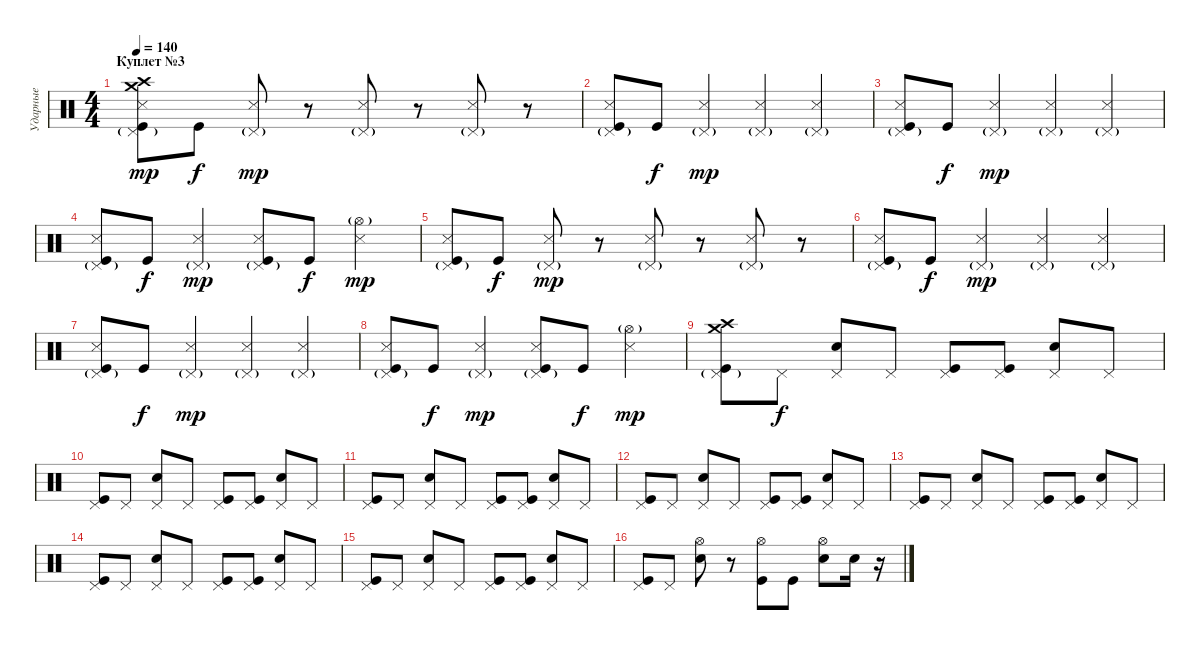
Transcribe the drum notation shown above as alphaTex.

\track ("Ударные" "Ударные") {instrument percussion}
\staff {score}
\articulation defaults
\ts (4 4)
\section ("" "Куплет №3")
\tempo 140
\clef neutral
\ks c
("Crash high (hit)" "Crash medium (hit)" "Pedal Hi-Hat (hit)"{g} "Snare (side stick) 3" "Kick (hit)").8{dy mp} "Kick (hit)".8{dy f} ("Pedal Hi-Hat (hit)"{g} "Snare (side stick) 3").8{dy mp} r.8 ("Pedal Hi-Hat (hit)"{g} "Snare (side stick) 3").8 r.8 ("Pedal Hi-Hat (hit)"{g} "Snare (side stick) 3").8 r.8 |
("Pedal Hi-Hat (hit)"{g} "Kick (hit)" "Snare (side stick) 3").8 "Kick (hit)".8{dy f} ("Pedal Hi-Hat (hit)"{g} "Snare (side stick) 3").4{dy mp} ("Pedal Hi-Hat (hit)"{g} "Snare (side stick) 3").4 ("Pedal Hi-Hat (hit)"{g} "Snare (side stick) 3").4 |
("Pedal Hi-Hat (hit)"{g} "Snare (side stick) 3" "Kick (hit)").8 "Kick (hit)".8{dy f} ("Pedal Hi-Hat (hit)"{g} "Snare (side stick) 3").4{dy mp} ("Pedal Hi-Hat (hit)"{g} "Snare (side stick) 3").4 ("Pedal Hi-Hat (hit)"{g} "Snare (side stick) 3").4 |
("Pedal Hi-Hat (hit)"{g} "Kick (hit)" "Snare (side stick) 3").8 "Kick (hit)".8{dy f} ("Pedal Hi-Hat (hit)"{g} "Snare (side stick) 3").4{dy mp} ("Pedal Hi-Hat (hit)"{g} "Kick (hit)" "Snare (side stick) 3").8 "Kick (hit)".8{dy f} ("Hi-Hat (open)"{g} "Snare (side stick) 3").4{dy mp} |
("Pedal Hi-Hat (hit)"{g} "Snare (side stick) 3" "Kick (hit)").8 "Kick (hit)".8{dy f} ("Pedal Hi-Hat (hit)"{g} "Snare (side stick) 3").8{dy mp} r.8 ("Pedal Hi-Hat (hit)"{g} "Snare (side stick) 3").8 r.8 ("Pedal Hi-Hat (hit)"{g} "Snare (side stick) 3").8 r.8 |
("Pedal Hi-Hat (hit)"{g} "Kick (hit)" "Snare (side stick) 3").8 "Kick (hit)".8{dy f} ("Pedal Hi-Hat (hit)"{g} "Snare (side stick) 3").4{dy mp} ("Pedal Hi-Hat (hit)"{g} "Snare (side stick) 3").4 ("Pedal Hi-Hat (hit)"{g} "Snare (side stick) 3").4 |
("Pedal Hi-Hat (hit)"{g} "Snare (side stick) 3" "Kick (hit)").8 "Kick (hit)".8{dy f} ("Pedal Hi-Hat (hit)"{g} "Snare (side stick) 3").4{dy mp} ("Pedal Hi-Hat (hit)"{g} "Snare (side stick) 3").4 ("Pedal Hi-Hat (hit)"{g} "Snare (side stick) 3").4 |
("Pedal Hi-Hat (hit)"{g} "Kick (hit)" "Snare (side stick) 3").8 "Kick (hit)".8{dy f} ("Pedal Hi-Hat (hit)"{g} "Snare (side stick) 3").4{dy mp} ("Pedal Hi-Hat (hit)"{g} "Kick (hit)" "Snare (side stick) 3").8 "Kick (hit)".8{dy f} ("Hi-Hat (open)"{g} "Snare (side stick) 3").4{dy mp} |
("Crash high (hit)" "Crash medium (hit)" "Pedal Hi-Hat (hit)"{g} "Kick (hit)").8 "Pedal Hi-Hat (hit)".8{dy f} ("Pedal Hi-Hat (hit)" "Electric Snare (hit)").8 "Pedal Hi-Hat (hit)".8 ("Pedal Hi-Hat (hit)" "Kick (hit)").8 ("Pedal Hi-Hat (hit)" "Kick (hit)").8 ("Pedal Hi-Hat (hit)" "Electric Snare (hit)").8 "Pedal Hi-Hat (hit)".8 |
("Pedal Hi-Hat (hit)" "Kick (hit)").8 "Pedal Hi-Hat (hit)".8 ("Pedal Hi-Hat (hit)" "Electric Snare (hit)").8 "Pedal Hi-Hat (hit)".8 ("Pedal Hi-Hat (hit)" "Kick (hit)").8 ("Pedal Hi-Hat (hit)" "Kick (hit)").8 ("Pedal Hi-Hat (hit)" "Electric Snare (hit)").8 "Pedal Hi-Hat (hit)".8 |
("Pedal Hi-Hat (hit)" "Kick (hit)").8 "Pedal Hi-Hat (hit)".8 ("Pedal Hi-Hat (hit)" "Electric Snare (hit)").8 "Pedal Hi-Hat (hit)".8 ("Pedal Hi-Hat (hit)" "Kick (hit)").8 ("Pedal Hi-Hat (hit)" "Kick (hit)").8 ("Pedal Hi-Hat (hit)" "Electric Snare (hit)").8 "Pedal Hi-Hat (hit)".8 |
("Pedal Hi-Hat (hit)" "Kick (hit)").8 "Pedal Hi-Hat (hit)".8 ("Pedal Hi-Hat (hit)" "Electric Snare (hit)").8 "Pedal Hi-Hat (hit)".8 ("Pedal Hi-Hat (hit)" "Kick (hit)").8 ("Pedal Hi-Hat (hit)" "Kick (hit)").8 ("Pedal Hi-Hat (hit)" "Electric Snare (hit)").8 "Pedal Hi-Hat (hit)".8 |
("Pedal Hi-Hat (hit)" "Kick (hit)").8 "Pedal Hi-Hat (hit)".8 ("Pedal Hi-Hat (hit)" "Electric Snare (hit)").8 "Pedal Hi-Hat (hit)".8 ("Pedal Hi-Hat (hit)" "Kick (hit)").8 ("Pedal Hi-Hat (hit)" "Kick (hit)").8 ("Pedal Hi-Hat (hit)" "Electric Snare (hit)").8 "Pedal Hi-Hat (hit)".8 |
("Pedal Hi-Hat (hit)" "Kick (hit)").8 "Pedal Hi-Hat (hit)".8 ("Pedal Hi-Hat (hit)" "Electric Snare (hit)").8 "Pedal Hi-Hat (hit)".8 ("Pedal Hi-Hat (hit)" "Kick (hit)").8 ("Pedal Hi-Hat (hit)" "Kick (hit)").8 ("Pedal Hi-Hat (hit)" "Electric Snare (hit)").8 "Pedal Hi-Hat (hit)".8 |
("Pedal Hi-Hat (hit)" "Kick (hit)").8 "Pedal Hi-Hat (hit)".8 ("Pedal Hi-Hat (hit)" "Electric Snare (hit)").8 "Pedal Hi-Hat (hit)".8 ("Pedal Hi-Hat (hit)" "Kick (hit)").8 ("Pedal Hi-Hat (hit)" "Kick (hit)").8 ("Pedal Hi-Hat (hit)" "Electric Snare (hit)").8 "Pedal Hi-Hat (hit)".8 |
("Pedal Hi-Hat (hit)" "Kick (hit)").8 "Pedal Hi-Hat (hit)".8 ("Hi-Hat (open)" "Electric Snare (hit)").8 r.8 ("Hi-Hat (open)" "Kick (hit)").8 "Kick (hit)".8 ("Hi-Hat (open)" "Electric Snare (hit)").8 "Electric Snare (hit)".16 r.16
